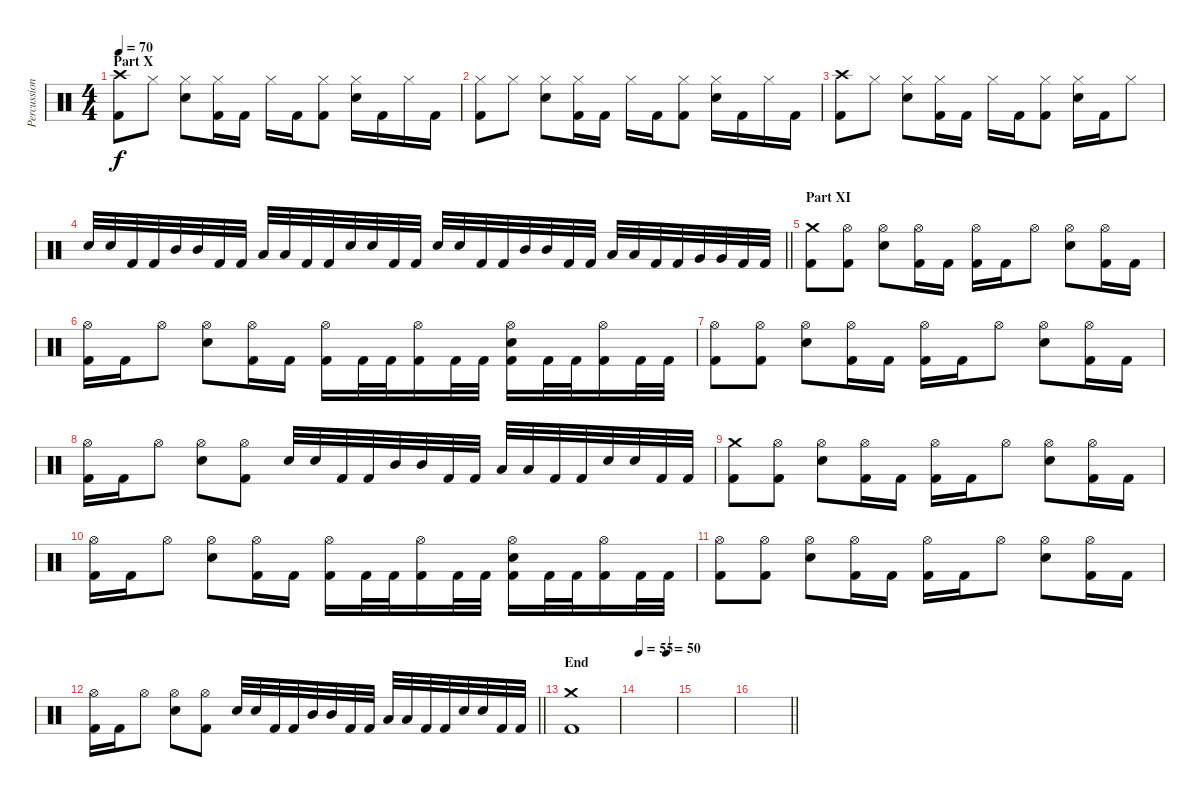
\track ("Percussion" "Percussion") {instrument percussion}
\staff {score}
\articulation defaults
\ts (4 4)
\section ("" "Part X")
\tempo 70
\clef neutral
\ks c
("Crash high (hit)" "Kick (hit) 2").8{dy f} "Hi-Hat (closed)".8 ("Hi-Hat (closed)" "Snare (hit) 2").8 ("Hi-Hat (closed)" "Kick (hit) 2").16 "Kick (hit) 2".16 "Hi-Hat (closed)".16 "Kick (hit) 2".16 ("Hi-Hat (closed)" "Kick (hit) 2").8 ("Hi-Hat (closed)" "Snare (hit) 2").16 "Kick (hit) 2".16 "Hi-Hat (closed)".16 "Kick (hit) 2".16 |
("Hi-Hat (closed)" "Kick (hit) 2").8 "Hi-Hat (closed)".8 ("Hi-Hat (closed)" "Snare (hit) 2").8 ("Hi-Hat (closed)" "Kick (hit) 2").16 "Kick (hit) 2".16 "Hi-Hat (closed)".16 "Kick (hit) 2".16 ("Hi-Hat (closed)" "Kick (hit) 2").8 ("Hi-Hat (closed)" "Snare (hit) 2").16 "Kick (hit) 2".16 "Hi-Hat (closed)".16 "Kick (hit) 2".16 |
("Crash high (hit)" "Kick (hit) 2").8 "Hi-Hat (closed)".8 ("Hi-Hat (closed)" "Snare (hit) 2").8 ("Hi-Hat (closed)" "Kick (hit) 2").16 "Kick (hit) 2".16 "Hi-Hat (closed)".16 "Kick (hit) 2".16 ("Hi-Hat (closed)" "Kick (hit) 2").8 ("Hi-Hat (closed)" "Snare (hit) 2").16 "Kick (hit) 2".16 "Hi-Hat (closed)".8 |
\barLineRight lightlight "Snare (hit) 2".32 "Snare (hit) 2".32 "Kick (hit) 2".32 "Kick (hit) 2".32 "Mid Tom (hit)".32 "Mid Tom (hit)".32 "Kick (hit) 2".32 "Kick (hit) 2".32 "Low Tom (hit)".32 "Low Tom (hit)".32 "Kick (hit) 2".32 "Kick (hit) 2".32 "Snare (hit) 2".32 "Snare (hit) 2".32 "Kick (hit) 2".32 "Kick (hit) 2".32 "Snare (hit) 2".32 "Snare (hit) 2".32 "Kick (hit) 2".32 "Kick (hit) 2".32 "Mid Tom (hit)".32 "Mid Tom (hit)".32 "Kick (hit) 2".32 "Kick (hit) 2".32 "Low Tom (hit)".32 "Low Tom (hit)".32 "Kick (hit) 2".32 "Kick (hit) 2".32 "Very Low Tom (hit)".32 "Very Low Tom (hit)".32 "Kick (hit) 2".32 "Kick (hit) 2".32
|
\section ("" "Part XI")
("Crash medium (hit)" "Kick (hit) 2").8 ("Hi-Hat (open)" "Kick (hit) 2").8 ("Hi-Hat (open)" "Snare (hit) 2").8 ("Hi-Hat (open)" "Kick (hit) 2").16 "Kick (hit) 2".16 ("Hi-Hat (open)" "Kick (hit) 2").16 "Kick (hit) 2".16 "Hi-Hat (open)".8 ("Hi-Hat (open)" "Snare (hit) 2").8 ("Hi-Hat (open)" "Kick (hit) 2").16 "Kick (hit) 2".16 |
("Hi-Hat (open)" "Kick (hit) 2").16 "Kick (hit) 2".16 "Hi-Hat (open)".8 ("Hi-Hat (open)" "Snare (hit) 2").8 ("Hi-Hat (open)" "Kick (hit) 2").16 "Kick (hit) 2".16 ("Hi-Hat (open)" "Kick (hit) 2").16 "Kick (hit) 2".32 "Kick (hit) 2".32 ("Hi-Hat (open)" "Kick (hit) 2").16 "Kick (hit) 2".32 "Kick (hit) 2".32 ("Hi-Hat (open)" "Snare (hit) 2" "Kick (hit) 2").16 "Kick (hit) 2".32 "Kick (hit) 2".32 ("Hi-Hat (open)" "Kick (hit) 2").16 "Kick (hit) 2".32 "Kick (hit) 2".32 |
("Hi-Hat (open)" "Kick (hit) 2").8 ("Hi-Hat (open)" "Kick (hit) 2").8 ("Hi-Hat (open)" "Snare (hit) 2").8 ("Hi-Hat (open)" "Kick (hit) 2").16 "Kick (hit) 2".16 ("Hi-Hat (open)" "Kick (hit) 2").16 "Kick (hit) 2".16 "Hi-Hat (open)".8 ("Hi-Hat (open)" "Snare (hit) 2").8 ("Hi-Hat (open)" "Kick (hit) 2").16 "Kick (hit) 2".16 |
("Hi-Hat (open)" "Kick (hit) 2").16 "Kick (hit) 2".16 "Hi-Hat (open)".8 ("Hi-Hat (open)" "Snare (hit) 2").8 ("Hi-Hat (open)" "Kick (hit) 2").8 "Snare (hit) 2".32 "Snare (hit) 2".32 "Kick (hit) 2".32 "Kick (hit) 2".32 "Mid Tom (hit)".32 "Mid Tom (hit)".32 "Kick (hit) 2".32 "Kick (hit) 2".32 "Low Tom (hit)".32 "Low Tom (hit)".32 "Kick (hit) 2".32 "Kick (hit) 2".32 "Snare (hit) 2".32 "Snare (hit) 2".32 "Kick (hit) 2".32 "Kick (hit) 2".32 |
("Crash medium (hit)" "Kick (hit) 2").8 ("Hi-Hat (open)" "Kick (hit) 2").8 ("Hi-Hat (open)" "Snare (hit) 2").8 ("Hi-Hat (open)" "Kick (hit) 2").16 "Kick (hit) 2".16 ("Hi-Hat (open)" "Kick (hit) 2").16 "Kick (hit) 2".16 "Hi-Hat (open)".8 ("Hi-Hat (open)" "Snare (hit) 2").8 ("Hi-Hat (open)" "Kick (hit) 2").16 "Kick (hit) 2".16 |
("Hi-Hat (open)" "Kick (hit) 2").16 "Kick (hit) 2".16 "Hi-Hat (open)".8 ("Hi-Hat (open)" "Snare (hit) 2").8 ("Hi-Hat (open)" "Kick (hit) 2").16 "Kick (hit) 2".16 ("Hi-Hat (open)" "Kick (hit) 2").16 "Kick (hit) 2".32 "Kick (hit) 2".32 ("Hi-Hat (open)" "Kick (hit) 2").16 "Kick (hit) 2".32 "Kick (hit) 2".32 ("Hi-Hat (open)" "Snare (hit) 2" "Kick (hit) 2").16 "Kick (hit) 2".32 "Kick (hit) 2".32 ("Hi-Hat (open)" "Kick (hit) 2").16 "Kick (hit) 2".32 "Kick (hit) 2".32 |
("Hi-Hat (open)" "Kick (hit) 2").8 ("Hi-Hat (open)" "Kick (hit) 2").8 ("Hi-Hat (open)" "Snare (hit) 2").8 ("Hi-Hat (open)" "Kick (hit) 2").16 "Kick (hit) 2".16 ("Hi-Hat (open)" "Kick (hit) 2").16 "Kick (hit) 2".16 "Hi-Hat (open)".8 ("Hi-Hat (open)" "Snare (hit) 2").8 ("Hi-Hat (open)" "Kick (hit) 2").16 "Kick (hit) 2".16 |
\barLineRight lightlight
("Hi-Hat (open)" "Kick (hit) 2").16 "Kick (hit) 2".16 "Hi-Hat (open)".8 ("Hi-Hat (open)" "Snare (hit) 2").8 ("Hi-Hat (open)" "Kick (hit) 2").8 "Snare (hit) 2".32 "Snare (hit) 2".32 "Kick (hit) 2".32 "Kick (hit) 2".32 "Mid Tom (hit)".32 "Mid Tom (hit)".32 "Kick (hit) 2".32 "Kick (hit) 2".32 "Low Tom (hit)".32 "Low Tom (hit)".32 "Kick (hit) 2".32 "Kick (hit) 2".32 "Snare (hit) 2".32 "Snare (hit) 2".32 "Kick (hit) 2".32 "Kick (hit) 2".32 |
\section ("" "End")
("Crash medium (hit)" "Kick (hit) 2").1 |
\tempo 55
\tempo (50 0.75)
|
|
\barLineRight lightlight
